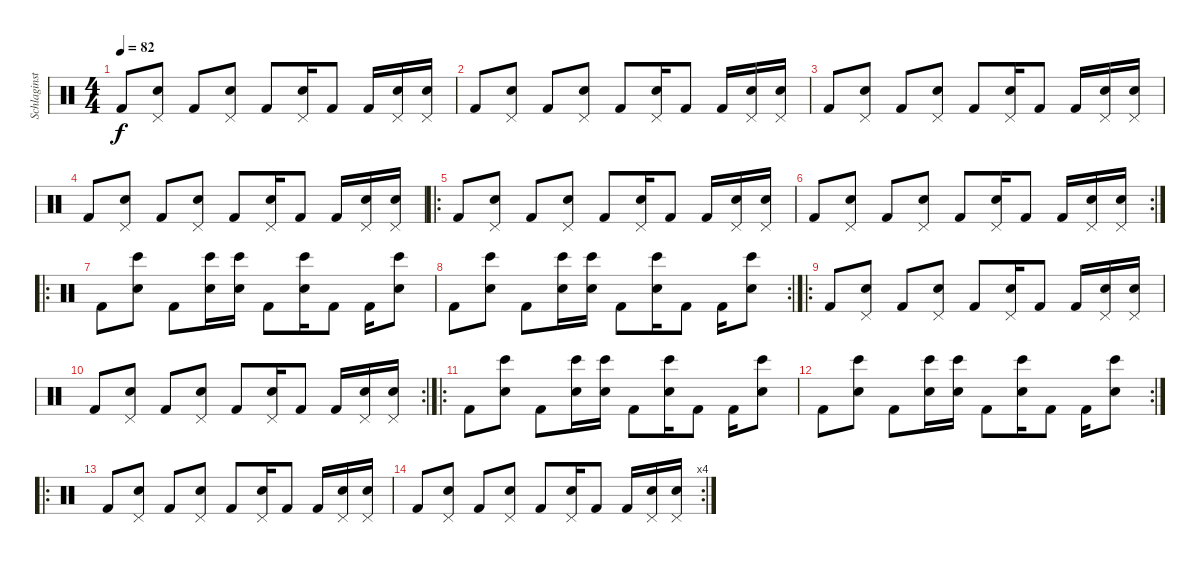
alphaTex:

\track ("Schlaginstrumente - Auswahl" "Schlaginst") {instrument percussion}
\staff {score}
\articulation defaults
\ts (4 4)
\tempo 82
\clef neutral
\ks c "Kick (hit) 2".8{dy f}
("Pedal Hi-Hat (hit)" "Electric Snare (hit)").8 "Kick (hit) 2".8 ("Pedal Hi-Hat (hit)" "Electric Snare (hit)").8 "Kick (hit) 2".8 ("Pedal Hi-Hat (hit)" "Electric Snare (hit)").16 "Kick (hit) 2".8 "Kick (hit) 2".16 ("Pedal Hi-Hat (hit)" "Electric Snare (hit)").16 ("Pedal Hi-Hat (hit)" "Electric Snare (hit)").16 |
"Kick (hit) 2".8 ("Pedal Hi-Hat (hit)" "Electric Snare (hit)").8 "Kick (hit) 2".8 ("Pedal Hi-Hat (hit)" "Electric Snare (hit)").8 "Kick (hit) 2".8 ("Pedal Hi-Hat (hit)" "Electric Snare (hit)").16 "Kick (hit) 2".8 "Kick (hit) 2".16 ("Pedal Hi-Hat (hit)" "Electric Snare (hit)").16 ("Pedal Hi-Hat (hit)" "Electric Snare (hit)").16 |
"Kick (hit) 2".8 ("Pedal Hi-Hat (hit)" "Electric Snare (hit)").8 "Kick (hit) 2".8 ("Pedal Hi-Hat (hit)" "Electric Snare (hit)").8 "Kick (hit) 2".8 ("Pedal Hi-Hat (hit)" "Electric Snare (hit)").16 "Kick (hit) 2".8 "Kick (hit) 2".16 ("Pedal Hi-Hat (hit)" "Electric Snare (hit)").16 ("Pedal Hi-Hat (hit)" "Electric Snare (hit)").16 |
"Kick (hit) 2".8 ("Pedal Hi-Hat (hit)" "Electric Snare (hit)").8 "Kick (hit) 2".8 ("Pedal Hi-Hat (hit)" "Electric Snare (hit)").8 "Kick (hit) 2".8 ("Pedal Hi-Hat (hit)" "Electric Snare (hit)").16 "Kick (hit) 2".8 "Kick (hit) 2".16 ("Pedal Hi-Hat (hit)" "Electric Snare (hit)").16 ("Pedal Hi-Hat (hit)" "Electric Snare (hit)").16 |
\ro "Kick (hit) 2".8
("Pedal Hi-Hat (hit)" "Electric Snare (hit)").8 "Kick (hit) 2".8 ("Pedal Hi-Hat (hit)" "Electric Snare (hit)").8 "Kick (hit) 2".8 ("Pedal Hi-Hat (hit)" "Electric Snare (hit)").16 "Kick (hit) 2".8 "Kick (hit) 2".16 ("Pedal Hi-Hat (hit)" "Electric Snare (hit)").16 ("Pedal Hi-Hat (hit)" "Electric Snare (hit)").16 |
\rc 2 "Kick (hit) 2".8
("Pedal Hi-Hat (hit)" "Electric Snare (hit)").8 "Kick (hit) 2".8 ("Pedal Hi-Hat (hit)" "Electric Snare (hit)").8 "Kick (hit) 2".8 ("Pedal Hi-Hat (hit)" "Electric Snare (hit)").16 "Kick (hit) 2".8 "Kick (hit) 2".16 ("Pedal Hi-Hat (hit)" "Electric Snare (hit)").16 ("Pedal Hi-Hat (hit)" "Electric Snare (hit)").16 |
\ro "Kick (hit) 2".8
("Bongo High (hit)" "Electric Snare (hit)").8 "Kick (hit) 2".8 ("Bongo High (hit)" "Electric Snare (hit)").16 ("Bongo High (hit)" "Electric Snare (hit)").16 "Kick (hit) 2".8 ("Bongo High (hit)" "Electric Snare (hit)").16 "Kick (hit) 2".8 "Kick (hit) 2".16 ("Bongo High (hit)" "Electric Snare (hit)").8 |
\rc 2 "Kick (hit) 2".8
("Bongo High (hit)" "Electric Snare (hit)").8 "Kick (hit) 2".8 ("Bongo High (hit)" "Electric Snare (hit)").16 ("Bongo High (hit)" "Electric Snare (hit)").16 "Kick (hit) 2".8 ("Bongo High (hit)" "Electric Snare (hit)").16 "Kick (hit) 2".8 "Kick (hit) 2".16 ("Bongo High (hit)" "Electric Snare (hit)").8 |
\ro "Kick (hit) 2".8
("Pedal Hi-Hat (hit)" "Electric Snare (hit)").8 "Kick (hit) 2".8 ("Pedal Hi-Hat (hit)" "Electric Snare (hit)").8 "Kick (hit) 2".8 ("Pedal Hi-Hat (hit)" "Electric Snare (hit)").16 "Kick (hit) 2".8 "Kick (hit) 2".16 ("Pedal Hi-Hat (hit)" "Electric Snare (hit)").16 ("Pedal Hi-Hat (hit)" "Electric Snare (hit)").16 |
\rc 2 "Kick (hit) 2".8
("Pedal Hi-Hat (hit)" "Electric Snare (hit)").8 "Kick (hit) 2".8 ("Pedal Hi-Hat (hit)" "Electric Snare (hit)").8 "Kick (hit) 2".8 ("Pedal Hi-Hat (hit)" "Electric Snare (hit)").16 "Kick (hit) 2".8 "Kick (hit) 2".16 ("Pedal Hi-Hat (hit)" "Electric Snare (hit)").16 ("Pedal Hi-Hat (hit)" "Electric Snare (hit)").16 |
\ro "Kick (hit) 2".8
("Bongo High (hit)" "Electric Snare (hit)").8 "Kick (hit) 2".8 ("Bongo High (hit)" "Electric Snare (hit)").16 ("Bongo High (hit)" "Electric Snare (hit)").16 "Kick (hit) 2".8 ("Bongo High (hit)" "Electric Snare (hit)").16 "Kick (hit) 2".8 "Kick (hit) 2".16 ("Bongo High (hit)" "Electric Snare (hit)").8 |
\rc 2 "Kick (hit) 2".8
("Bongo High (hit)" "Electric Snare (hit)").8 "Kick (hit) 2".8 ("Bongo High (hit)" "Electric Snare (hit)").16 ("Bongo High (hit)" "Electric Snare (hit)").16 "Kick (hit) 2".8 ("Bongo High (hit)" "Electric Snare (hit)").16 "Kick (hit) 2".8 "Kick (hit) 2".16 ("Bongo High (hit)" "Electric Snare (hit)").8 |
\ro "Kick (hit) 2".8
("Pedal Hi-Hat (hit)" "Electric Snare (hit)").8 "Kick (hit) 2".8 ("Pedal Hi-Hat (hit)" "Electric Snare (hit)").8 "Kick (hit) 2".8 ("Pedal Hi-Hat (hit)" "Electric Snare (hit)").16 "Kick (hit) 2".8 "Kick (hit) 2".16 ("Pedal Hi-Hat (hit)" "Electric Snare (hit)").16 ("Pedal Hi-Hat (hit)" "Electric Snare (hit)").16 |
\rc 4 "Kick (hit) 2".8
("Pedal Hi-Hat (hit)" "Electric Snare (hit)").8 "Kick (hit) 2".8 ("Pedal Hi-Hat (hit)" "Electric Snare (hit)").8 "Kick (hit) 2".8 ("Pedal Hi-Hat (hit)" "Electric Snare (hit)").16 "Kick (hit) 2".8 "Kick (hit) 2".16 ("Pedal Hi-Hat (hit)" "Electric Snare (hit)").16 ("Pedal Hi-Hat (hit)" "Electric Snare (hit)").16
